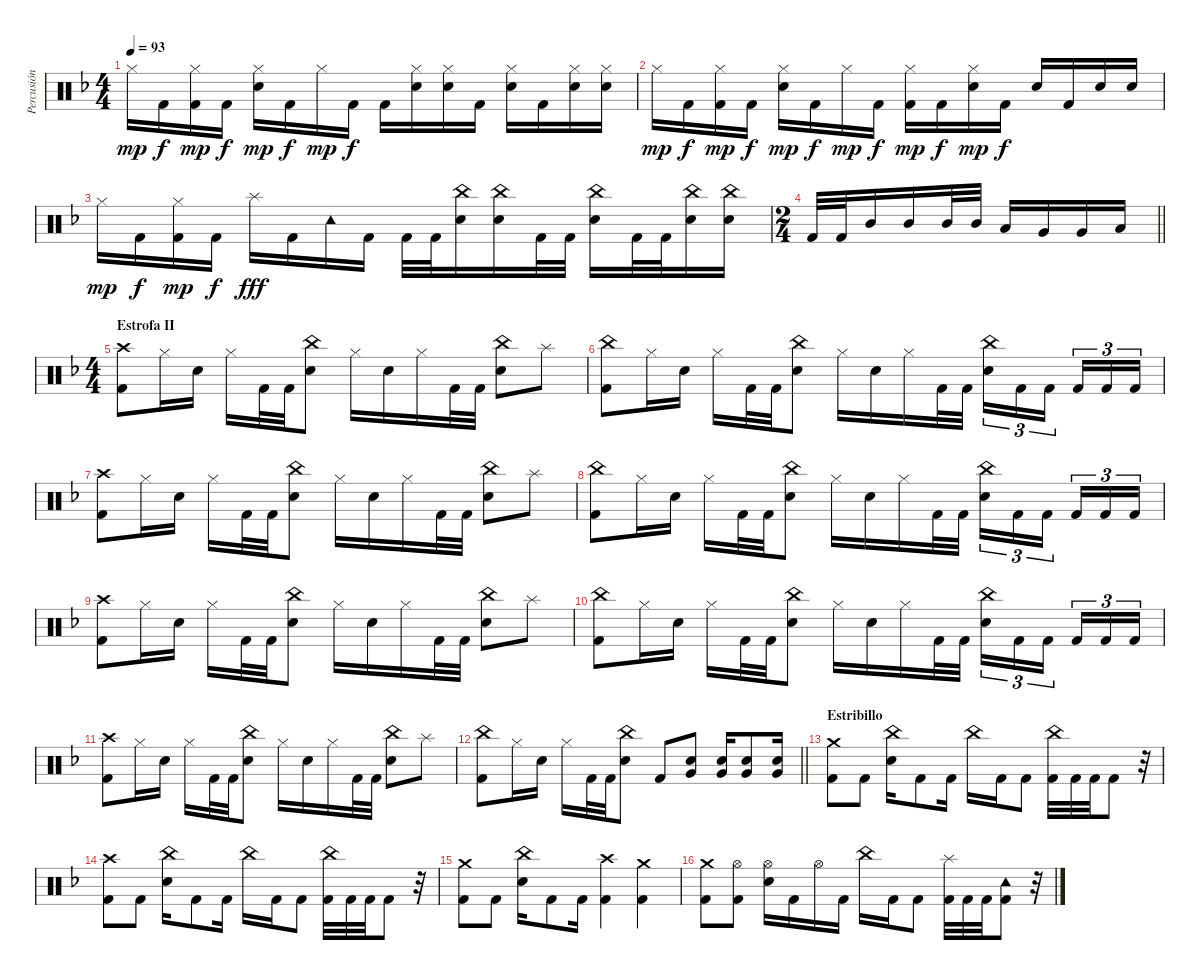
\track ("Percusión" "Percusión") {instrument percussion}
\staff {score}
\articulation defaults
\ts (4 4)
\tempo 93
\clef neutral
\ks dminor "Hi-Hat (closed)".16{dy mp} "Kick (hit) 2".16{dy f}
("Hi-Hat (closed)" "Kick (hit) 2").16{dy mp} "Kick (hit) 2".16{dy f} ("Hi-Hat (closed)" "Snare (hit) 2").16{dy mp} "Kick (hit) 2".16{dy f} "Hi-Hat (closed)".16{dy mp} "Kick (hit) 2".16{dy f} "Kick (hit) 2".16 ("Hi-Hat (closed)" "Snare (hit) 2").16 ("Hi-Hat (closed)" "Snare (hit) 2").16 "Kick (hit) 2".16 ("Hi-Hat (closed)" "Snare (hit) 2").16 "Kick (hit) 2".16 ("Hi-Hat (closed)" "Snare (hit) 2").16 ("Hi-Hat (closed)" "Snare (hit) 2").16 |
"Hi-Hat (closed)".16{dy mp} "Kick (hit) 2".16{dy f} ("Hi-Hat (closed)" "Kick (hit) 2").16{dy mp} "Kick (hit) 2".16{dy f} ("Hi-Hat (closed)" "Snare (hit) 2").16{dy mp} "Kick (hit) 2".16{dy f} "Hi-Hat (closed)".16{dy mp} "Kick (hit) 2".16{dy f} ("Hi-Hat (closed)" "Kick (hit) 2").16{dy mp} "Kick (hit) 2".16{dy f} ("Hi-Hat (closed)" "Snare (hit) 2").16{dy mp} "Kick (hit) 2".16{dy f} "Snare (hit) 2".16 "Kick (hit) 2".16 "Snare (hit) 2".16 "Snare (hit) 2".16 |
"Hi-Hat (closed)".16{dy mp} "Kick (hit) 2".16{dy f} ("Hi-Hat (closed)" "Kick (hit) 2").16{dy mp} "Kick (hit) 2".16{dy f} "Splash (hit)".16{dy fff} "Kick (hit) 2".16 "Tambourine (hit)".16 "Kick (hit) 2".16 "Kick (hit) 2".32 "Kick (hit) 2".32 ("China (hit)" "Snare (hit) 2").16 ("China (hit)" "Snare (hit) 2").16 "Kick (hit) 2".32 "Kick (hit) 2".32 ("China (hit)" "Snare (hit) 2").16 "Kick (hit) 2".32 "Kick (hit) 2".32 ("China (hit)" "Snare (hit) 2").16 ("China (hit)" "Snare (hit) 2").16 |
\ts (2 4)
\barLineRight lightlight "Kick (hit) 2".32 "Kick (hit) 2".32 "Mid Tom (hit)".16 "Mid Tom (hit)".16 "Mid Tom (hit)".32 "Mid Tom (hit)".32 "Low Tom (hit)".16 "Very Low Tom (hit)".16 "Very Low Tom (hit)".16 "Low Floor Tom (hit)".16
|
\ts (4 4)
\section ("" "Estrofa II")
("Crash high (hit)" "Kick (hit) 2").8 "Hi-Hat (closed)".16 "Snare (hit) 2".16 "Hi-Hat (closed)".16 "Kick (hit) 2".32 "Kick (hit) 2".32 ("China (hit)" "Snare (hit) 2").8 "Hi-Hat (closed)".16 "Snare (hit) 2".16 "Hi-Hat (closed)".16 "Kick (hit) 2".32 "Kick (hit) 2".32 ("China (hit)" "Snare (hit) 2").8 "Splash (hit)".8 |
("China (hit)" "Kick (hit) 2").8 "Hi-Hat (closed)".16 "Snare (hit) 2".16 "Hi-Hat (closed)".16 "Kick (hit) 2".32 "Kick (hit) 2".32 ("China (hit)" "Snare (hit) 2").8 "Hi-Hat (closed)".16 "Snare (hit) 2".16 "Hi-Hat (closed)".16 "Kick (hit) 2".32 "Kick (hit) 2".32 ("China (hit)" "Snare (hit) 2").16{tu (3 2)} "Kick (hit) 2".16{tu (3 2)} "Kick (hit) 2".16{tu (3 2) beam splitsecondary} "Kick (hit) 2".16{tu (3 2)} "Kick (hit) 2".16{tu (3 2)} "Kick (hit) 2".16{tu (3 2)} |
("Crash high (hit)" "Kick (hit) 2").8 "Hi-Hat (closed)".16 "Snare (hit) 2".16 "Hi-Hat (closed)".16 "Kick (hit) 2".32 "Kick (hit) 2".32 ("China (hit)" "Snare (hit) 2").8 "Hi-Hat (closed)".16 "Snare (hit) 2".16 "Hi-Hat (closed)".16 "Kick (hit) 2".32 "Kick (hit) 2".32 ("China (hit)" "Snare (hit) 2").8 "Splash (hit)".8 |
("China (hit)" "Kick (hit) 2").8 "Hi-Hat (closed)".16 "Snare (hit) 2".16 "Hi-Hat (closed)".16 "Kick (hit) 2".32 "Kick (hit) 2".32 ("China (hit)" "Snare (hit) 2").8 "Hi-Hat (closed)".16 "Snare (hit) 2".16 "Hi-Hat (closed)".16 "Kick (hit) 2".32 "Kick (hit) 2".32 ("China (hit)" "Snare (hit) 2").16{tu (3 2)} "Kick (hit) 2".16{tu (3 2)} "Kick (hit) 2".16{tu (3 2) beam splitsecondary} "Kick (hit) 2".16{tu (3 2)} "Kick (hit) 2".16{tu (3 2)} "Kick (hit) 2".16{tu (3 2)} |
("Crash high (hit)" "Kick (hit) 2").8 "Hi-Hat (closed)".16 "Snare (hit) 2".16 "Hi-Hat (closed)".16 "Kick (hit) 2".32 "Kick (hit) 2".32 ("China (hit)" "Snare (hit) 2").8 "Hi-Hat (closed)".16 "Snare (hit) 2".16 "Hi-Hat (closed)".16 "Kick (hit) 2".32 "Kick (hit) 2".32 ("China (hit)" "Snare (hit) 2").8 "Splash (hit)".8 |
("China (hit)" "Kick (hit) 2").8 "Hi-Hat (closed)".16 "Snare (hit) 2".16 "Hi-Hat (closed)".16 "Kick (hit) 2".32 "Kick (hit) 2".32 ("China (hit)" "Snare (hit) 2").8 "Hi-Hat (closed)".16 "Snare (hit) 2".16 "Hi-Hat (closed)".16 "Kick (hit) 2".32 "Kick (hit) 2".32 ("China (hit)" "Snare (hit) 2").16{tu (3 2)} "Kick (hit) 2".16{tu (3 2)} "Kick (hit) 2".16{tu (3 2) beam splitsecondary} "Kick (hit) 2".16{tu (3 2)} "Kick (hit) 2".16{tu (3 2)} "Kick (hit) 2".16{tu (3 2)} |
("Crash high (hit)" "Kick (hit) 2").8 "Hi-Hat (closed)".16 "Snare (hit) 2".16 "Hi-Hat (closed)".16 "Kick (hit) 2".32 "Kick (hit) 2".32 ("China (hit)" "Snare (hit) 2").8 "Hi-Hat (closed)".16 "Snare (hit) 2".16 "Hi-Hat (closed)".16 "Kick (hit) 2".32 "Kick (hit) 2".32 ("China (hit)" "Snare (hit) 2").8 "Splash (hit)".8 |
\barLineRight lightlight
("China (hit)" "Kick (hit) 2").8 "Hi-Hat (closed)".16 "Snare (hit) 2".16 "Hi-Hat (closed)".16 "Kick (hit) 2".32 "Kick (hit) 2".32 ("China (hit)" "Snare (hit) 2").8 "Kick (hit) 2".8 ("Very Low Tom (hit)" "Snare (hit) 2").8 ("Very Low Tom (hit)" "Snare (hit) 2").16 ("Very Low Tom (hit)" "Snare (hit) 2").8 ("Very Low Tom (hit)" "Snare (hit) 2").16 |
\section ("" "Estribillo")
("Crash medium (hit)" "Kick (hit) 2").8 "Kick (hit) 2".8 ("China (hit)" "Snare (hit) 2").16 "Kick (hit) 2".8 "Kick (hit) 2".16 "China (hit)".16 "Kick (hit) 2".16 "Kick (hit) 2".8 ("China (hit)" "Kick (hit) 2").32 "Kick (hit) 2".32 "Kick (hit) 2".32 "Kick (hit) 2".8 r.32 |
("Crash high (hit)" "Kick (hit) 2").8 "Kick (hit) 2".8 ("China (hit)" "Snare (hit) 2").16 "Kick (hit) 2".8 "Kick (hit) 2".16 "China (hit)".16 "Kick (hit) 2".16 "Kick (hit) 2".8 ("China (hit)" "Kick (hit) 2").32 "Kick (hit) 2".32 "Kick (hit) 2".32 "Kick (hit) 2".8 r.32 |
("Crash medium (hit)" "Kick (hit) 2").8 "Kick (hit) 2".8 ("China (hit)" "Snare (hit) 2").16 "Kick (hit) 2".8 "Kick (hit) 2".16 ("Crash high (hit)" "Kick (hit) 2").4 ("Crash medium (hit)" "Kick (hit) 2").4 |
("Crash medium (hit)" "Kick (hit) 2").8 ("Hi-Hat (open)" "Kick (hit) 2").8 ("Hi-Hat (open)" "Snare (hit) 2").16 "Kick (hit) 2".16 "Hi-Hat (open)".16 "Kick (hit) 2".16 "China (hit)".16 "Kick (hit) 2".16 "Kick (hit) 2".8 ("Splash (hit)" "Kick (hit) 2").32 "Kick (hit) 2".32 "Kick (hit) 2".32 ("Tambourine (hit)" "Kick (hit) 2").8 r.32
